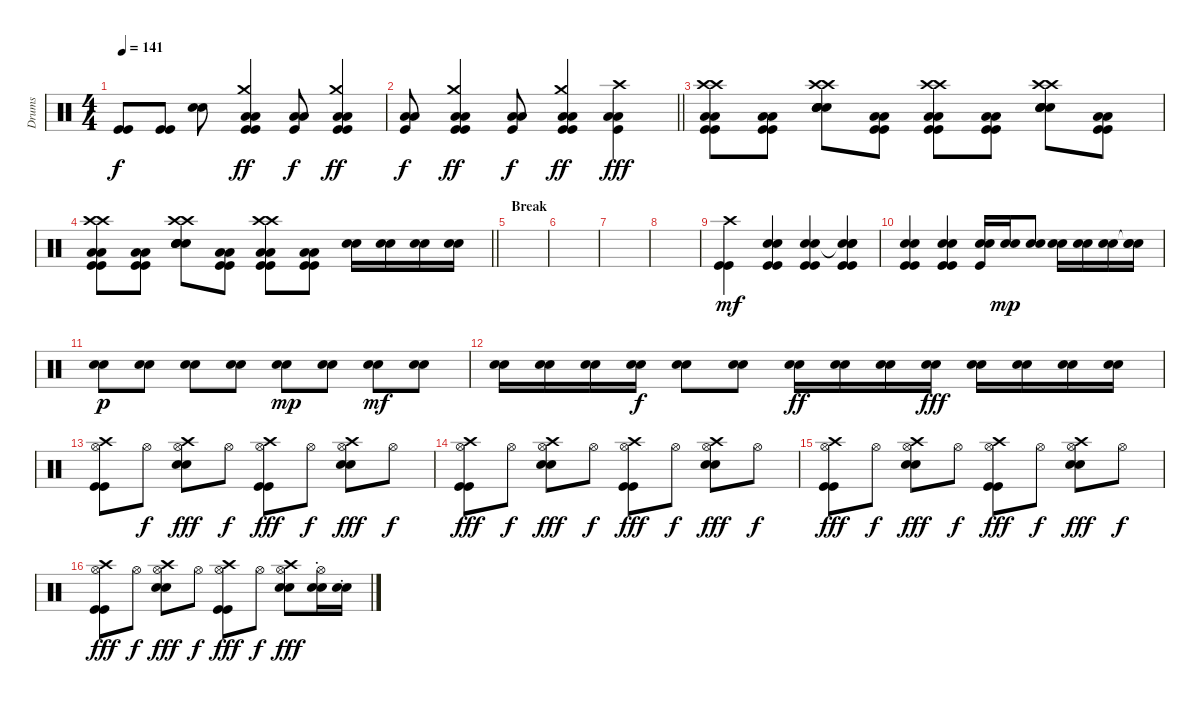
\track ("Drums" "Drums") {instrument percussion}
\staff {score}
\articulation defaults
\ts (4 4)
\tempo 141
\clef neutral
\ks c
("Kick (hit)" "Kick (hit)").8{dy f} ("Kick (hit)" "Kick (hit)").8 ("Snare (hit) 2" "Snare (hit) 2").8 ("Crash medium (hit)" "Low Floor Tom (hit)" "Low Floor Tom (hit)" "Kick (hit)" "Kick (hit)").4{dy ff} ("Low Floor Tom (hit)" "Low Floor Tom (hit)" "Kick (hit)").8{dy f} ("Crash medium (hit)" "Low Floor Tom (hit)" "Low Floor Tom (hit)" "Kick (hit)" "Kick (hit)").4{dy ff} |
\barLineRight lightlight
("Low Floor Tom (hit)" "Low Floor Tom (hit)" "Kick (hit)").8{dy f} ("Crash medium (hit)" "Low Floor Tom (hit)" "Low Floor Tom (hit)" "Kick (hit)" "Kick (hit)").4{dy ff} ("Low Floor Tom (hit)" "Low Floor Tom (hit)" "Kick (hit)").8{dy f} ("Crash medium (hit)" "Low Floor Tom (hit)" "Low Floor Tom (hit)" "Kick (hit)" "Kick (hit)").4{dy ff} ("Crash high (hit)" "Low Floor Tom (hit)" "Low Floor Tom (hit)" "Kick (hit)").4{dy fff} |
("Crash high (hit)" "Crash high (hit)" "Low Floor Tom (hit)" "Low Floor Tom (hit)" "Kick (hit)" "Kick (hit)").8 ("Low Floor Tom (hit)" "Low Floor Tom (hit)" "Kick (hit)" "Kick (hit)").8 ("Crash high (hit)" "Crash high (hit)" "Snare (hit) 2" "Snare (hit) 2" "Snare (hit) 2" "Snare (hit) 2").8 ("Low Floor Tom (hit)" "Low Floor Tom (hit)" "Kick (hit)" "Kick (hit)").8 ("Crash high (hit)" "Crash high (hit)" "Low Floor Tom (hit)" "Low Floor Tom (hit)" "Kick (hit)" "Kick (hit)").8 ("Low Floor Tom (hit)" "Low Floor Tom (hit)" "Kick (hit)" "Kick (hit)").8 ("Crash high (hit)" "Crash high (hit)" "Snare (hit) 2" "Snare (hit) 2" "Snare (hit) 2" "Snare (hit) 2").8 ("Low Floor Tom (hit)" "Low Floor Tom (hit)" "Kick (hit)" "Kick (hit)").8 |
\barLineRight lightlight
("Crash high (hit)" "Crash high (hit)" "Low Floor Tom (hit)" "Low Floor Tom (hit)" "Kick (hit)" "Kick (hit)").8 ("Low Floor Tom (hit)" "Low Floor Tom (hit)" "Kick (hit)" "Kick (hit)").8 ("Crash high (hit)" "Crash high (hit)" "Snare (hit) 2" "Snare (hit) 2" "Snare (hit) 2" "Snare (hit) 2").8 ("Low Floor Tom (hit)" "Low Floor Tom (hit)" "Kick (hit)" "Kick (hit)").8 ("Crash high (hit)" "Crash high (hit)" "Low Floor Tom (hit)" "Low Floor Tom (hit)" "Kick (hit)" "Kick (hit)").8 ("Low Floor Tom (hit)" "Low Floor Tom (hit)" "Kick (hit)" "Kick (hit)").8 ("Snare (hit) 2" "Snare (hit) 2").16 ("Snare (hit) 2" "Snare (hit) 2").16 ("Snare (hit) 2" "Snare (hit) 2").16 ("Snare (hit) 2" "Snare (hit) 2").16 |
\section ("" "Break")
|
|
|
|
("Crash high (hit)" "Kick (hit)" "Kick (hit)").4{dy mf} ("Snare (hit) 2" "Snare (hit) 2" "Kick (hit)" "Kick (hit)").4 ("Snare (hit) 2" "Snare (hit) 2" "Kick (hit)" "Kick (hit)").4 ("Snare (hit)"{t} "Snare (hit) 2" "Snare (hit) 2" "Kick (hit)" "Kick (hit)").4 |
("Snare (hit) 2" "Snare (hit) 2" "Kick (hit)" "Kick (hit)").4 ("Snare (hit) 2" "Snare (hit) 2" "Kick (hit)" "Kick (hit)").4 ("Snare (hit) 2" "Snare (hit) 2" "Kick (hit)").16 ("Snare (hit) 2" "Snare (hit) 2").16{dy mp} ("Snare (hit) 2" "Snare (hit) 2").8 ("Snare (hit) 2" "Snare (hit) 2").16 ("Snare (hit) 2" "Snare (hit) 2").16 ("Snare (hit) 2" "Snare (hit) 2").16 ("Snare (hit)"{t} "Snare (hit) 2" "Snare (hit) 2").16 |
("Snare (hit) 2" "Snare (hit) 2").8{dy p} ("Snare (hit) 2" "Snare (hit) 2").8 ("Snare (hit) 2" "Snare (hit) 2").8 ("Snare (hit) 2" "Snare (hit) 2").8 ("Snare (hit) 2" "Snare (hit) 2").8{dy mp} ("Snare (hit) 2" "Snare (hit) 2").8 ("Snare (hit) 2" "Snare (hit) 2").8{dy mf} ("Snare (hit) 2" "Snare (hit) 2").8 |
("Snare (hit) 2" "Snare (hit) 2").16 ("Snare (hit) 2" "Snare (hit) 2").16 ("Snare (hit) 2" "Snare (hit) 2").16 ("Snare (hit) 2" "Snare (hit) 2").16{dy f} ("Snare (hit) 2" "Snare (hit) 2").8 ("Snare (hit) 2" "Snare (hit) 2").8 ("Snare (hit) 2" "Snare (hit) 2").16{dy ff} ("Snare (hit) 2" "Snare (hit) 2").16 ("Snare (hit) 2" "Snare (hit) 2").16 ("Snare (hit) 2" "Snare (hit) 2").16{dy fff} ("Snare (hit) 2" "Snare (hit) 2").16 ("Snare (hit) 2" "Snare (hit) 2").16 ("Snare (hit) 2" "Snare (hit) 2").16 ("Snare (hit) 2" "Snare (hit) 2").16 |
("Hi-Hat (open)" "Crash high (hit)" "Kick (hit)" "Kick (hit)").8 "Hi-Hat (open)".8{dy f} ("Hi-Hat (open)" "Crash high (hit)" "Snare (hit) 2" "Snare (hit) 2").8{dy fff} "Hi-Hat (open)".8{dy f} ("Hi-Hat (open)" "Crash high (hit)" "Kick (hit)" "Kick (hit)").8{dy fff} "Hi-Hat (open)".8{dy f} ("Hi-Hat (open)" "Crash high (hit)" "Snare (hit) 2" "Snare (hit) 2").8{dy fff} "Hi-Hat (open)".8{dy f} |
("Hi-Hat (open)" "Crash high (hit)" "Kick (hit)" "Kick (hit)").8{dy fff} "Hi-Hat (open)".8{dy f} ("Hi-Hat (open)" "Crash high (hit)" "Snare (hit) 2" "Snare (hit) 2").8{dy fff} "Hi-Hat (open)".8{dy f} ("Hi-Hat (open)" "Crash high (hit)" "Kick (hit)" "Kick (hit)").8{dy fff} "Hi-Hat (open)".8{dy f} ("Hi-Hat (open)" "Crash high (hit)" "Snare (hit) 2" "Snare (hit) 2").8{dy fff} "Hi-Hat (open)".8{dy f} |
("Hi-Hat (open)" "Crash high (hit)" "Kick (hit)" "Kick (hit)").8{dy fff} "Hi-Hat (open)".8{dy f} ("Hi-Hat (open)" "Crash high (hit)" "Snare (hit) 2" "Snare (hit) 2").8{dy fff} "Hi-Hat (open)".8{dy f} ("Hi-Hat (open)" "Crash high (hit)" "Kick (hit)" "Kick (hit)").8{dy fff} "Hi-Hat (open)".8{dy f} ("Hi-Hat (open)" "Crash high (hit)" "Snare (hit) 2" "Snare (hit) 2").8{dy fff} "Hi-Hat (open)".8{dy f} |
("Hi-Hat (open)" "Crash high (hit)" "Kick (hit)" "Kick (hit)").8{dy fff} "Hi-Hat (open)".8{dy f} ("Hi-Hat (open)" "Crash high (hit)" "Snare (hit) 2" "Snare (hit) 2").8{dy fff} "Hi-Hat (open)".8{dy f} ("Hi-Hat (open)" "Crash high (hit)" "Kick (hit)" "Kick (hit)").8{dy fff} "Hi-Hat (open)".8{dy f} ("Hi-Hat (open)" "Crash high (hit)" "Snare (hit) 2" "Snare (hit) 2").8{dy fff} ("Hi-Hat (open)" "Snare (hit) 2"{st} "Snare (hit) 2"{st}).16 ("Snare (hit) 2"{st} "Snare (hit) 2"{st}).16
